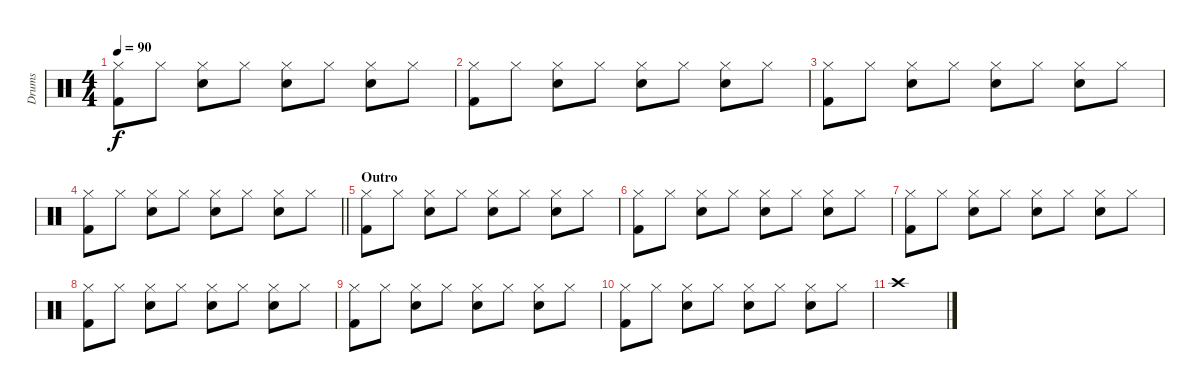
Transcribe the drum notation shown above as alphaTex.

\track ("Drums" "Drums") {instrument percussion}
\staff {score}
\articulation defaults
\ts (4 4)
\tempo 90
\clef neutral
\ks c
("Hi-Hat (closed)" "Kick (hit) 2").8{dy f} "Hi-Hat (closed)".8 ("Hi-Hat (closed)" "Snare (hit) 2").8 "Hi-Hat (closed)".8 ("Hi-Hat (closed)" "Snare (hit) 2").8 "Hi-Hat (closed)".8 ("Hi-Hat (closed)" "Snare (hit) 2").8 "Hi-Hat (closed)".8 |
("Hi-Hat (closed)" "Kick (hit) 2").8 "Hi-Hat (closed)".8 ("Hi-Hat (closed)" "Snare (hit) 2").8 "Hi-Hat (closed)".8 ("Hi-Hat (closed)" "Snare (hit) 2").8 "Hi-Hat (closed)".8 ("Hi-Hat (closed)" "Snare (hit) 2").8 "Hi-Hat (closed)".8 |
("Hi-Hat (closed)" "Kick (hit) 2").8 "Hi-Hat (closed)".8 ("Hi-Hat (closed)" "Snare (hit) 2").8 "Hi-Hat (closed)".8 ("Hi-Hat (closed)" "Snare (hit) 2").8 "Hi-Hat (closed)".8 ("Hi-Hat (closed)" "Snare (hit) 2").8 "Hi-Hat (closed)".8 |
\barLineRight lightlight
("Hi-Hat (closed)" "Kick (hit) 2").8 "Hi-Hat (closed)".8 ("Hi-Hat (closed)" "Snare (hit) 2").8 "Hi-Hat (closed)".8 ("Hi-Hat (closed)" "Snare (hit) 2").8 "Hi-Hat (closed)".8 ("Hi-Hat (closed)" "Snare (hit) 2").8 "Hi-Hat (closed)".8 |
\section ("" "Outro")
("Hi-Hat (closed)" "Kick (hit) 2").8 "Hi-Hat (closed)".8 ("Hi-Hat (closed)" "Snare (hit) 2").8 "Hi-Hat (closed)".8 ("Hi-Hat (closed)" "Snare (hit) 2").8 "Hi-Hat (closed)".8 ("Hi-Hat (closed)" "Snare (hit) 2").8 "Hi-Hat (closed)".8 |
("Hi-Hat (closed)" "Kick (hit) 2").8 "Hi-Hat (closed)".8 ("Hi-Hat (closed)" "Snare (hit) 2").8 "Hi-Hat (closed)".8 ("Hi-Hat (closed)" "Snare (hit) 2").8 "Hi-Hat (closed)".8 ("Hi-Hat (closed)" "Snare (hit) 2").8 "Hi-Hat (closed)".8 |
("Hi-Hat (closed)" "Kick (hit) 2").8 "Hi-Hat (closed)".8 ("Hi-Hat (closed)" "Snare (hit) 2").8 "Hi-Hat (closed)".8 ("Hi-Hat (closed)" "Snare (hit) 2").8 "Hi-Hat (closed)".8 ("Hi-Hat (closed)" "Snare (hit) 2").8 "Hi-Hat (closed)".8 |
("Hi-Hat (closed)" "Kick (hit) 2").8 "Hi-Hat (closed)".8 ("Hi-Hat (closed)" "Snare (hit) 2").8 "Hi-Hat (closed)".8 ("Hi-Hat (closed)" "Snare (hit) 2").8 "Hi-Hat (closed)".8 ("Hi-Hat (closed)" "Snare (hit) 2").8 "Hi-Hat (closed)".8 |
("Hi-Hat (closed)" "Kick (hit) 2").8 "Hi-Hat (closed)".8 ("Hi-Hat (closed)" "Snare (hit) 2").8 "Hi-Hat (closed)".8 ("Hi-Hat (closed)" "Snare (hit) 2").8 "Hi-Hat (closed)".8 ("Hi-Hat (closed)" "Snare (hit) 2").8 "Hi-Hat (closed)".8 |
("Hi-Hat (closed)" "Kick (hit) 2").8 "Hi-Hat (closed)".8 ("Hi-Hat (closed)" "Snare (hit) 2").8 "Hi-Hat (closed)".8 ("Hi-Hat (closed)" "Snare (hit) 2").8 "Hi-Hat (closed)".8 ("Hi-Hat (closed)" "Snare (hit) 2").8 "Hi-Hat (closed)".8 |
"Crash high (hit)".1
